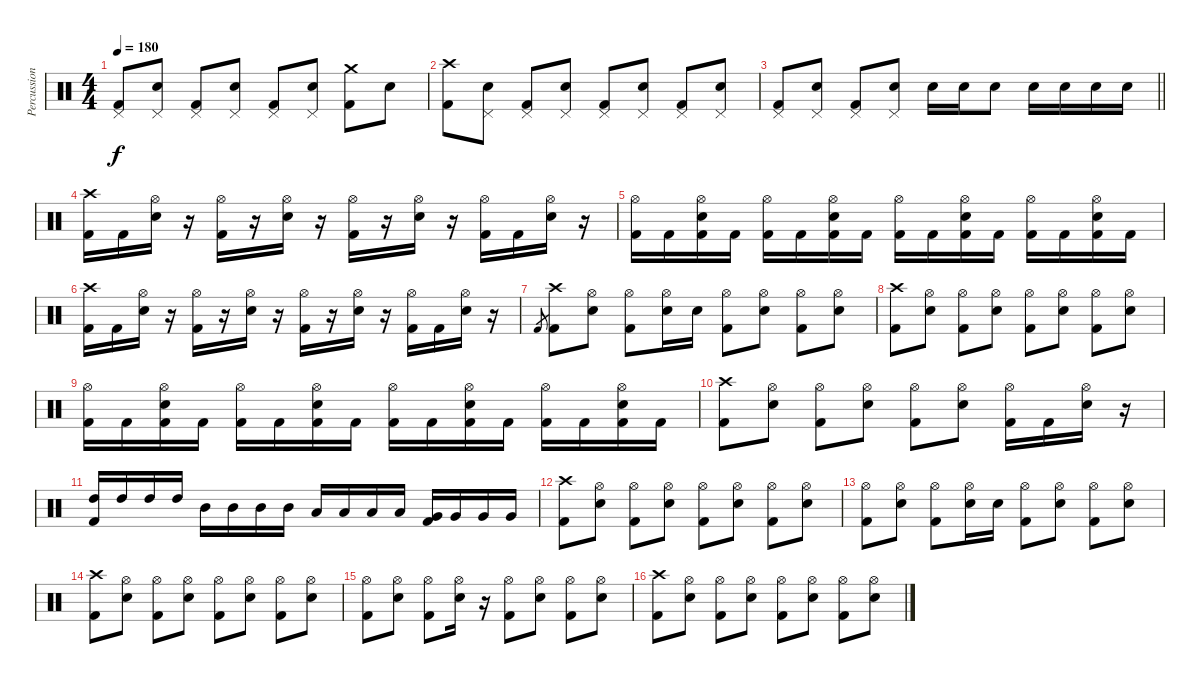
\track ("Percussion" "Percussion") {instrument percussion}
\staff {score}
\articulation defaults
\ts (4 4)
\tempo 180
\clef neutral
\ks c
("Pedal Hi-Hat (hit)" "Kick (hit) 2").8{dy f} ("Pedal Hi-Hat (hit)" "Snare (hit) 2").8 ("Pedal Hi-Hat (hit)" "Kick (hit) 2").8 ("Pedal Hi-Hat (hit)" "Snare (hit) 2").8 ("Pedal Hi-Hat (hit)" "Kick (hit) 2").8 ("Pedal Hi-Hat (hit)" "Snare (hit) 2").8 ("Crash medium (hit)" "Kick (hit) 2").8 "Snare (hit) 2".8 |
("Crash high (hit)" "Kick (hit) 2").8 ("Pedal Hi-Hat (hit)" "Snare (hit) 2").8 ("Pedal Hi-Hat (hit)" "Kick (hit) 2").8 ("Pedal Hi-Hat (hit)" "Snare (hit) 2").8 ("Pedal Hi-Hat (hit)" "Kick (hit) 2").8 ("Pedal Hi-Hat (hit)" "Snare (hit) 2").8 ("Pedal Hi-Hat (hit)" "Kick (hit) 2").8 ("Pedal Hi-Hat (hit)" "Snare (hit) 2").8 |
\barLineRight lightlight
("Pedal Hi-Hat (hit)" "Kick (hit) 2").8 ("Pedal Hi-Hat (hit)" "Snare (hit) 2").8 ("Pedal Hi-Hat (hit)" "Kick (hit) 2").8 ("Pedal Hi-Hat (hit)" "Snare (hit) 2").8 "Snare (hit) 2".16 "Snare (hit) 2".16 "Snare (hit) 2".8 "Snare (hit) 2".16 "Snare (hit) 2".16 "Snare (hit) 2".16 "Snare (hit) 2".16 |
("Crash high (hit)" "Kick (hit) 2").16 "Kick (hit) 2".16 ("Hi-Hat (open)" "Snare (hit) 2").16 r.16 ("Hi-Hat (open)" "Kick (hit) 2").16 r.16 ("Hi-Hat (open)" "Snare (hit) 2").16 r.16 ("Hi-Hat (open)" "Kick (hit) 2").16 r.16 ("Hi-Hat (open)" "Snare (hit) 2").16 r.16 ("Hi-Hat (open)" "Kick (hit) 2").16 "Kick (hit) 2".16 ("Hi-Hat (open)" "Snare (hit) 2").16 r.16 |
("Hi-Hat (open)" "Kick (hit) 2").16 "Kick (hit) 2".16 ("Hi-Hat (open)" "Snare (hit) 2" "Kick (hit) 2").16 "Kick (hit) 2".16 ("Hi-Hat (open)" "Kick (hit) 2").16 "Kick (hit) 2".16 ("Hi-Hat (open)" "Snare (hit) 2" "Kick (hit) 2").16 "Kick (hit) 2".16 ("Hi-Hat (open)" "Kick (hit) 2").16 "Kick (hit) 2".16 ("Hi-Hat (open)" "Snare (hit) 2" "Kick (hit) 2").16 "Kick (hit) 2".16 ("Hi-Hat (open)" "Kick (hit) 2").16 "Kick (hit) 2".16 ("Hi-Hat (open)" "Snare (hit) 2" "Kick (hit) 2").16 "Kick (hit) 2".16 |
("Crash high (hit)" "Kick (hit) 2").16 "Kick (hit) 2".16 ("Hi-Hat (open)" "Snare (hit) 2").16 r.16 ("Hi-Hat (open)" "Kick (hit) 2").16 r.16 ("Hi-Hat (open)" "Snare (hit) 2").16 r.16 ("Hi-Hat (open)" "Kick (hit) 2").16 r.16 ("Hi-Hat (open)" "Snare (hit) 2").16 r.16 ("Hi-Hat (open)" "Kick (hit) 2").16 "Kick (hit) 2".16 ("Hi-Hat (open)" "Snare (hit) 2").16 r.16 |
"Kick (hit) 2".8{gr} ("Crash high (hit)" "Kick (hit) 2").8 ("Hi-Hat (open)" "Snare (hit) 2").8 ("Hi-Hat (open)" "Kick (hit) 2").8 ("Hi-Hat (open)" "Snare (hit) 2").16 "Snare (hit) 2".16 ("Hi-Hat (open)" "Kick (hit) 2").8 ("Hi-Hat (open)" "Snare (hit) 2").8 ("Hi-Hat (open)" "Kick (hit) 2").8 ("Hi-Hat (open)" "Snare (hit) 2").8 |
("Crash high (hit)" "Kick (hit) 2").8 ("Hi-Hat (open)" "Snare (hit) 2").8 ("Hi-Hat (open)" "Kick (hit) 2").8 ("Hi-Hat (open)" "Snare (hit) 2").8 ("Hi-Hat (open)" "Kick (hit) 2").8 ("Hi-Hat (open)" "Snare (hit) 2").8 ("Hi-Hat (open)" "Kick (hit) 2").8 ("Hi-Hat (open)" "Snare (hit) 2").8 |
("Hi-Hat (open)" "Kick (hit) 2").16 "Kick (hit) 2".16 ("Hi-Hat (open)" "Snare (hit) 2" "Kick (hit) 2").16 "Kick (hit) 2".16 ("Hi-Hat (open)" "Kick (hit) 2").16 "Kick (hit) 2".16 ("Hi-Hat (open)" "Snare (hit) 2" "Kick (hit) 2").16 "Kick (hit) 2".16 ("Hi-Hat (open)" "Kick (hit) 2").16 "Kick (hit) 2".16 ("Hi-Hat (open)" "Snare (hit) 2" "Kick (hit) 2").16 "Kick (hit) 2".16 ("Hi-Hat (open)" "Kick (hit) 2").16 "Kick (hit) 2".16 ("Hi-Hat (open)" "Snare (hit) 2" "Kick (hit) 2").16 "Kick (hit) 2".16 |
("Crash high (hit)" "Kick (hit) 2").8 ("Hi-Hat (open)" "Snare (hit) 2").8 ("Hi-Hat (open)" "Kick (hit) 2").8 ("Hi-Hat (open)" "Snare (hit) 2").8 ("Hi-Hat (open)" "Kick (hit) 2").8 ("Hi-Hat (open)" "Snare (hit) 2").8 ("Hi-Hat (open)" "Kick (hit) 2").16 "Kick (hit) 2".16 ("Hi-Hat (open)" "Snare (hit) 2").16 r.16 |
("High Tom (hit)" "Kick (hit) 2").16 "High Tom (hit)".16 "High Tom (hit)".16 "High Tom (hit)".16 "Mid Tom (hit)".16 "Mid Tom (hit)".16 "Mid Tom (hit)".16 "Mid Tom (hit)".16 "Low Tom (hit)".16 "Low Tom (hit)".16 "Low Tom (hit)".16 "Low Tom (hit)".16 ("Very Low Tom (hit)" "Kick (hit) 2").16 "Very Low Tom (hit)".16 "Very Low Tom (hit)".16 "Very Low Tom (hit)".16 |
("Crash high (hit)" "Kick (hit) 2").8 ("Hi-Hat (open)" "Snare (hit) 2").8 ("Hi-Hat (open)" "Kick (hit) 2").8 ("Hi-Hat (open)" "Snare (hit) 2").8 ("Hi-Hat (open)" "Kick (hit) 2").8 ("Hi-Hat (open)" "Snare (hit) 2").8 ("Hi-Hat (open)" "Kick (hit) 2").8 ("Hi-Hat (open)" "Snare (hit) 2").8 |
("Hi-Hat (open)" "Kick (hit) 2").8 ("Hi-Hat (open)" "Snare (hit) 2").8 ("Hi-Hat (open)" "Kick (hit) 2").8 ("Hi-Hat (open)" "Snare (hit) 2").16 "Snare (hit) 2".16 ("Hi-Hat (open)" "Kick (hit) 2").8 ("Hi-Hat (open)" "Snare (hit) 2").8 ("Hi-Hat (open)" "Kick (hit) 2").8 ("Hi-Hat (open)" "Snare (hit) 2").8 |
("Crash high (hit)" "Kick (hit) 2").8 ("Hi-Hat (open)" "Snare (hit) 2").8 ("Hi-Hat (open)" "Kick (hit) 2").8 ("Hi-Hat (open)" "Snare (hit) 2").8 ("Hi-Hat (open)" "Kick (hit) 2").8 ("Hi-Hat (open)" "Snare (hit) 2").8 ("Hi-Hat (open)" "Kick (hit) 2").8 ("Hi-Hat (open)" "Snare (hit) 2").8 |
("Hi-Hat (open)" "Kick (hit) 2").8 ("Hi-Hat (open)" "Snare (hit) 2").8 ("Hi-Hat (open)" "Kick (hit) 2").8 ("Hi-Hat (open)" "Snare (hit) 2").16 r.16 ("Hi-Hat (open)" "Kick (hit) 2").8 ("Hi-Hat (open)" "Snare (hit) 2").8 ("Hi-Hat (open)" "Kick (hit) 2").8 ("Hi-Hat (open)" "Snare (hit) 2").8 |
("Crash high (hit)" "Kick (hit) 2").8 ("Hi-Hat (open)" "Snare (hit) 2").8 ("Hi-Hat (open)" "Kick (hit) 2").8 ("Hi-Hat (open)" "Snare (hit) 2").8 ("Hi-Hat (open)" "Kick (hit) 2").8 ("Hi-Hat (open)" "Snare (hit) 2").8 ("Hi-Hat (open)" "Kick (hit) 2").8 ("Hi-Hat (open)" "Snare (hit) 2").8
